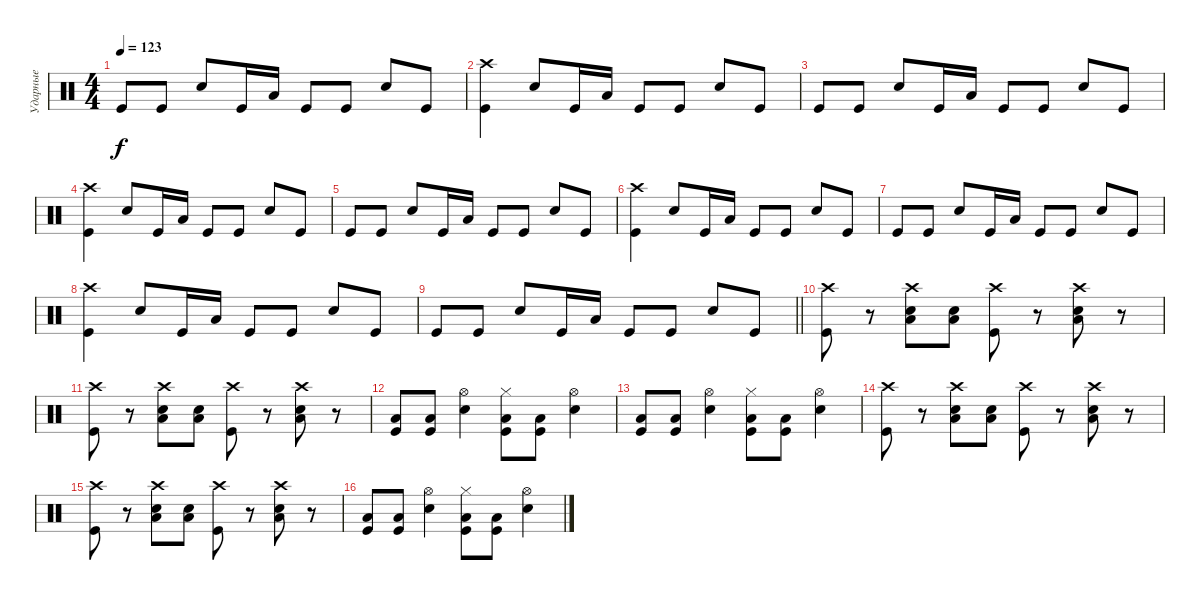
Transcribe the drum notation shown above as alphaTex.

\track ("Ударные" "Ударные") {instrument percussion}
\staff {score}
\articulation defaults
\ts (4 4)
\tempo 123
\clef neutral
\ks c "Kick (hit)".8{dy f} "Kick (hit)".8 "Electric Snare (hit)".8 "Kick (hit)".16 "Low Tom (hit)".16 "Kick (hit)".8 "Kick (hit)".8 "Electric Snare (hit)".8 "Kick (hit)".8
|
("Crash high (hit)" "Kick (hit)").4 "Electric Snare (hit)".8 "Kick (hit)".16 "Low Tom (hit)".16 "Kick (hit)".8 "Kick (hit)".8 "Electric Snare (hit)".8 "Kick (hit)".8 |
"Kick (hit)".8 "Kick (hit)".8 "Electric Snare (hit)".8 "Kick (hit)".16 "Low Tom (hit)".16 "Kick (hit)".8 "Kick (hit)".8 "Electric Snare (hit)".8 "Kick (hit)".8 |
("Crash high (hit)" "Kick (hit)").4 "Electric Snare (hit)".8 "Kick (hit)".16 "Low Tom (hit)".16 "Kick (hit)".8 "Kick (hit)".8 "Electric Snare (hit)".8 "Kick (hit)".8 |
"Kick (hit)".8 "Kick (hit)".8 "Electric Snare (hit)".8 "Kick (hit)".16 "Low Tom (hit)".16 "Kick (hit)".8 "Kick (hit)".8 "Electric Snare (hit)".8 "Kick (hit)".8 |
("Crash high (hit)" "Kick (hit)").4 "Electric Snare (hit)".8 "Kick (hit)".16 "Low Tom (hit)".16 "Kick (hit)".8 "Kick (hit)".8 "Electric Snare (hit)".8 "Kick (hit)".8 |
"Kick (hit)".8 "Kick (hit)".8 "Electric Snare (hit)".8 "Kick (hit)".16 "Low Tom (hit)".16 "Kick (hit)".8 "Kick (hit)".8 "Electric Snare (hit)".8 "Kick (hit)".8 |
("Crash high (hit)" "Kick (hit)").4 "Electric Snare (hit)".8 "Kick (hit)".16 "Low Tom (hit)".16 "Kick (hit)".8 "Kick (hit)".8 "Electric Snare (hit)".8 "Kick (hit)".8 |
\barLineRight lightlight "Kick (hit)".8 "Kick (hit)".8 "Electric Snare (hit)".8 "Kick (hit)".16 "Low Tom (hit)".16 "Kick (hit)".8 "Kick (hit)".8 "Electric Snare (hit)".8 "Kick (hit)".8
|
("Crash high (hit)" "Kick (hit)").8 r.8 ("Crash high (hit)" "Electric Snare (hit)" "Low Tom (hit)").8 ("Electric Snare (hit)" "Low Tom (hit)").8 ("Crash high (hit)" "Kick (hit)").8 r.8 ("Crash high (hit)" "Electric Snare (hit)" "Low Tom (hit)").8 r.8 |
("Crash high (hit)" "Kick (hit)").8 r.8 ("Crash high (hit)" "Electric Snare (hit)" "Low Tom (hit)").8 ("Electric Snare (hit)" "Low Tom (hit)").8 ("Crash high (hit)" "Kick (hit)").8 r.8 ("Crash high (hit)" "Electric Snare (hit)" "Low Tom (hit)").8 r.8 |
("Low Tom (hit)" "Kick (hit)").8 ("Low Tom (hit)" "Kick (hit)").8 ("Hi-Hat (open)" "Snare (hit) 2").4 ("Hi-Hat (closed)" "Low Tom (hit)" "Kick (hit)").8 ("Low Tom (hit)" "Kick (hit)").8 ("Hi-Hat (open)" "Snare (hit) 2").4 |
("Low Tom (hit)" "Kick (hit)").8 ("Low Tom (hit)" "Kick (hit)").8 ("Hi-Hat (open)" "Snare (hit) 2").4 ("Hi-Hat (closed)" "Low Tom (hit)" "Kick (hit)").8 ("Low Tom (hit)" "Kick (hit)").8 ("Hi-Hat (open)" "Snare (hit) 2").4 |
("Crash high (hit)" "Kick (hit)").8 r.8 ("Crash high (hit)" "Electric Snare (hit)" "Low Tom (hit)").8 ("Electric Snare (hit)" "Low Tom (hit)").8 ("Crash high (hit)" "Kick (hit)").8 r.8 ("Crash high (hit)" "Electric Snare (hit)" "Low Tom (hit)").8 r.8 |
("Crash high (hit)" "Kick (hit)").8 r.8 ("Crash high (hit)" "Electric Snare (hit)" "Low Tom (hit)").8 ("Electric Snare (hit)" "Low Tom (hit)").8 ("Crash high (hit)" "Kick (hit)").8 r.8 ("Crash high (hit)" "Electric Snare (hit)" "Low Tom (hit)").8 r.8 |
("Low Tom (hit)" "Kick (hit)").8 ("Low Tom (hit)" "Kick (hit)").8 ("Hi-Hat (open)" "Electric Snare (hit)").4 ("Hi-Hat (closed)" "Low Tom (hit)" "Kick (hit)").8 ("Low Tom (hit)" "Kick (hit)").8 ("Hi-Hat (open)" "Electric Snare (hit)").4
